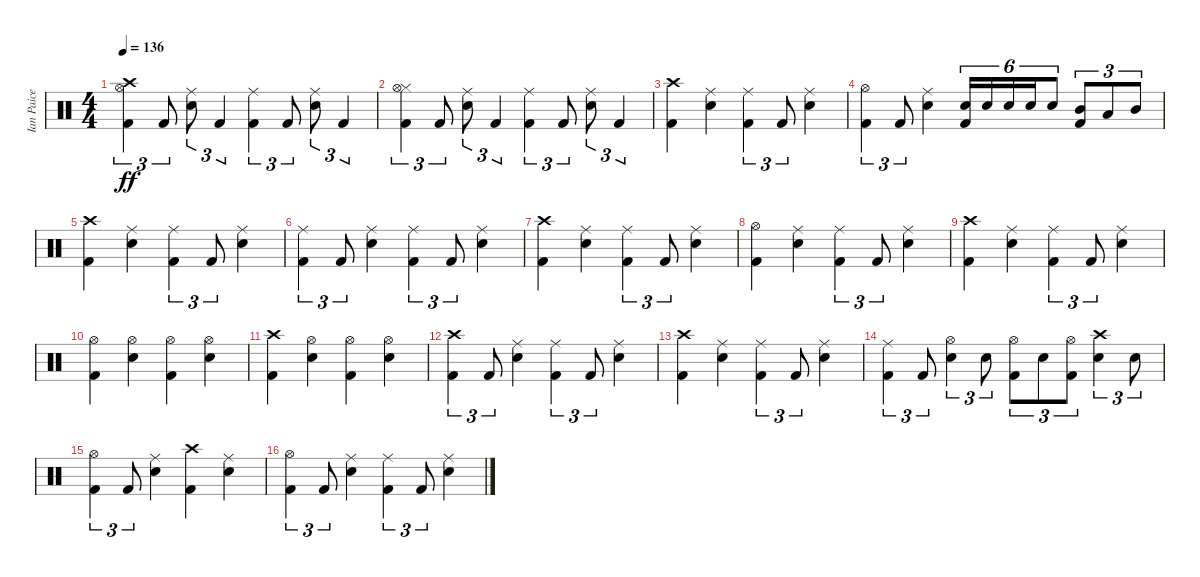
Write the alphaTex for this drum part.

\track ("Ian Paice" "Ian Paice") {instrument percussion}
\staff {score}
\articulation defaults
\ts (4 4)
\tempo 136
\clef neutral
\ks c
("Crash high (hit)" "Hi-Hat (open)" "Kick (hit) 2").4{tu (3 2) dy ff} "Kick (hit) 2".8{tu (3 2)} ("Ride (middle)" "Electric Snare (hit)").8{tu (3 2)} "Kick (hit) 2".4{tu (3 2)} ("Ride (middle)" "Kick (hit) 2").4{tu (3 2)} "Kick (hit) 2".8{tu (3 2)} ("Ride (middle)" "Electric Snare (hit)").8{tu (3 2)} "Kick (hit) 2".4{tu (3 2)} |
("Hi-Hat (closed)" "Hi-Hat (open)" "Kick (hit) 2").4{tu (3 2)} "Kick (hit) 2".8{tu (3 2)} ("Ride (middle)" "Electric Snare (hit)").8{tu (3 2)} "Kick (hit) 2".4{tu (3 2)} ("Ride (middle)" "Kick (hit) 2").4{tu (3 2)} "Kick (hit) 2".8{tu (3 2)} ("Ride (middle)" "Electric Snare (hit)").8{tu (3 2)} "Kick (hit) 2".4{tu (3 2)} |
("Crash high (hit)" "Kick (hit) 2").4 ("Ride (middle)" "Electric Snare (hit)").4 ("Ride (middle)" "Kick (hit) 2").4{tu (3 2)} "Kick (hit) 2".8{tu (3 2)} ("Ride (middle)" "Electric Snare (hit)").4 |
("Hi-Hat (open)" "Kick (hit) 2").4{tu (3 2)} "Kick (hit) 2".8{tu (3 2)} ("Ride (middle)" "Electric Snare (hit)").4 ("Electric Snare (hit)" "Kick (hit) 2").16{tu (6 4)} "Electric Snare (hit)".16{tu (6 4)} "Electric Snare (hit)".16{tu (6 4)} "Electric Snare (hit)".16{tu (6 4)} "Electric Snare (hit)".8{tu (6 4)} ("Mid Tom (hit)" "Kick (hit) 2").8{tu (3 2)} "Low Tom (hit)".8{tu (3 2)} "Mid Tom (hit)".8{tu (3 2)} |
("Crash high (hit)" "Kick (hit) 2").4 ("Ride (middle)" "Electric Snare (hit)").4 ("Ride (middle)" "Kick (hit) 2").4{tu (3 2)} "Kick (hit) 2".8{tu (3 2)} ("Ride (middle)" "Electric Snare (hit)").4 |
("Ride (middle)" "Kick (hit) 2").4{tu (3 2)} "Kick (hit) 2".8{tu (3 2)} ("Ride (middle)" "Electric Snare (hit)").4 ("Ride (middle)" "Kick (hit) 2").4{tu (3 2)} "Kick (hit) 2".8{tu (3 2)} ("Ride (middle)" "Electric Snare (hit)").4 |
("Crash high (hit)" "Kick (hit) 2").4 ("Ride (middle)" "Electric Snare (hit)").4 ("Ride (middle)" "Kick (hit) 2").4{tu (3 2)} "Kick (hit) 2".8{tu (3 2)} ("Ride (middle)" "Electric Snare (hit)").4 |
("Hi-Hat (open)" "Kick (hit) 2").4 ("Ride (middle)" "Electric Snare (hit)").4 ("Ride (middle)" "Kick (hit) 2").4{tu (3 2)} "Kick (hit) 2".8{tu (3 2)} ("Ride (middle)" "Electric Snare (hit)").4 |
("Crash high (hit)" "Kick (hit) 2").4 ("Ride (middle)" "Electric Snare (hit)").4 ("Ride (middle)" "Kick (hit) 2").4{tu (3 2)} "Kick (hit) 2".8{tu (3 2)} ("Ride (middle)" "Electric Snare (hit)").4 |
("Hi-Hat (open)" "Kick (hit) 2").4 ("Hi-Hat (open)" "Electric Snare (hit)").4 ("Hi-Hat (open)" "Kick (hit) 2").4 ("Hi-Hat (open)" "Electric Snare (hit)").4 |
("Crash high (hit)" "Kick (hit) 2").4 ("Hi-Hat (open)" "Electric Snare (hit)").4 ("Hi-Hat (open)" "Kick (hit) 2").4 ("Hi-Hat (open)" "Electric Snare (hit)").4 |
("Crash high (hit)" "Kick (hit) 2").4{tu (3 2)} "Kick (hit) 2".8{tu (3 2)} ("Ride (middle)" "Electric Snare (hit)").4 ("Ride (middle)" "Kick (hit) 2").4{tu (3 2)} "Kick (hit) 2".8{tu (3 2)} ("Ride (middle)" "Electric Snare (hit)").4 |
("Crash high (hit)" "Kick (hit) 2").4 ("Ride (middle)" "Electric Snare (hit)").4 ("Ride (middle)" "Kick (hit) 2").4{tu (3 2)} "Kick (hit) 2".8{tu (3 2)} ("Ride (middle)" "Electric Snare (hit)").4 |
("Ride (middle)" "Kick (hit) 2").4{tu (3 2)} "Kick (hit) 2".8{tu (3 2)} ("Hi-Hat (open)" "Electric Snare (hit)").4{tu (3 2)} "Electric Snare (hit)".8{tu (3 2)} ("Hi-Hat (open)" "Kick (hit) 2").8{tu (3 2)} "Electric Snare (hit)".8{tu (3 2)} ("Hi-Hat (open)" "Kick (hit) 2").8{tu (3 2)} ("Crash high (hit)" "Electric Snare (hit)").4{tu (3 2)} "Electric Snare (hit)".8{tu (3 2)} |
("Hi-Hat (open)" "Kick (hit) 2").4{tu (3 2)} "Kick (hit) 2".8{tu (3 2)} ("Ride (middle)" "Electric Snare (hit)").4 ("Crash high (hit)" "Kick (hit) 2").4 ("Ride (middle)" "Electric Snare (hit)").4 |
("Hi-Hat (open)" "Kick (hit) 2").4{tu (3 2)} "Kick (hit) 2".8{tu (3 2)} ("Ride (middle)" "Electric Snare (hit)").4 ("Ride (middle)" "Kick (hit) 2").4{tu (3 2)} "Kick (hit) 2".8{tu (3 2)} ("Ride (middle)" "Electric Snare (hit)").4
